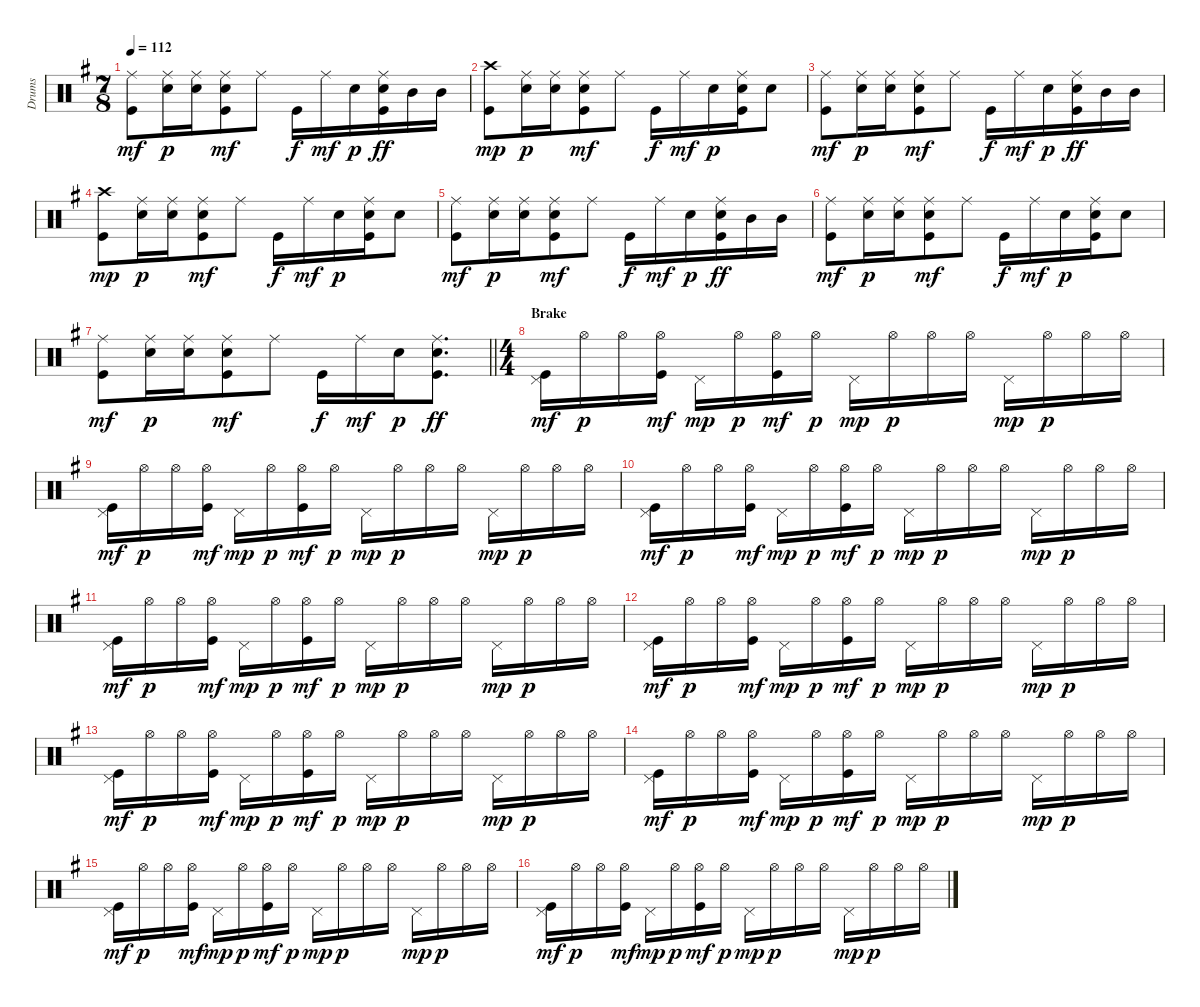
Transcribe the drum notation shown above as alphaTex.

\track ("Drums" "Drums") {instrument percussion}
\staff {score}
\articulation defaults
\ts (7 8)
\tempo 112
\clef neutral
\ks g
("Ride (middle)" "Kick (hit)").8{dy mf} ("Ride (middle)" "Snare (hit) 2").16{dy p} ("Ride (middle)" "Snare (hit) 2").16 ("Ride (middle)" "Snare (hit) 2" "Kick (hit)").8{dy mf} "Ride (middle)".8 "Kick (hit)".16{dy f} "Ride (middle)".16{dy mf} "Snare (hit) 2".16{dy p} ("Ride (middle)" "Snare (hit) 2" "Kick (hit)").16{dy ff} "Mid Tom (hit)".16 "Mid Tom (hit)".16 |
("Crash high (hit)" "Kick (hit)").8{dy mp} ("Ride (middle)" "Snare (hit) 2").16{dy p} ("Ride (middle)" "Snare (hit) 2").16 ("Ride (middle)" "Snare (hit) 2" "Kick (hit)").8{dy mf} "Ride (middle)".8 "Kick (hit)".16{dy f} "Ride (middle)".16{dy mf} "Snare (hit) 2".16{dy p} ("Ride (middle)" "Snare (hit) 2" "Kick (hit)").16 "Snare (hit) 2".8 |
("Ride (middle)" "Kick (hit)").8{dy mf} ("Ride (middle)" "Snare (hit) 2").16{dy p} ("Ride (middle)" "Snare (hit) 2").16 ("Ride (middle)" "Snare (hit) 2" "Kick (hit)").8{dy mf} "Ride (middle)".8 "Kick (hit)".16{dy f} "Ride (middle)".16{dy mf} "Snare (hit) 2".16{dy p} ("Ride (middle)" "Snare (hit) 2" "Kick (hit)").16{dy ff} "Mid Tom (hit)".16 "Mid Tom (hit)".16 |
("Crash high (hit)" "Kick (hit)").8{dy mp} ("Ride (middle)" "Snare (hit) 2").16{dy p} ("Ride (middle)" "Snare (hit) 2").16 ("Ride (middle)" "Snare (hit) 2" "Kick (hit)").8{dy mf} "Ride (middle)".8 "Kick (hit)".16{dy f} "Ride (middle)".16{dy mf} "Snare (hit) 2".16{dy p} ("Ride (middle)" "Snare (hit) 2" "Kick (hit)").16 "Snare (hit) 2".8 |
("Ride (middle)" "Kick (hit)").8{dy mf} ("Ride (middle)" "Snare (hit) 2").16{dy p} ("Ride (middle)" "Snare (hit) 2").16 ("Ride (middle)" "Snare (hit) 2" "Kick (hit)").8{dy mf} "Ride (middle)".8 "Kick (hit)".16{dy f} "Ride (middle)".16{dy mf} "Snare (hit) 2".16{dy p} ("Ride (middle)" "Snare (hit) 2" "Kick (hit)").16{dy ff} "Mid Tom (hit)".16 "Mid Tom (hit)".16 |
("Ride (middle)" "Kick (hit)").8{dy mf} ("Ride (middle)" "Snare (hit) 2").16{dy p} ("Ride (middle)" "Snare (hit) 2").16 ("Ride (middle)" "Snare (hit) 2" "Kick (hit)").8{dy mf} "Ride (middle)".8 "Kick (hit)".16{dy f} "Ride (middle)".16{dy mf} "Snare (hit) 2".16{dy p} ("Ride (middle)" "Snare (hit) 2" "Kick (hit)").16 "Snare (hit) 2".8 |
\barLineRight lightlight
("Ride (middle)" "Kick (hit)").8{dy mf} ("Ride (middle)" "Snare (hit) 2").16{dy p} ("Ride (middle)" "Snare (hit) 2").16 ("Ride (middle)" "Snare (hit) 2" "Kick (hit)").8{dy mf} "Ride (middle)".8 "Kick (hit)".16{dy f} "Ride (middle)".16{dy mf} "Snare (hit) 2".16{dy p} ("Ride (middle)" "Snare (hit) 2" "Kick (hit)").8{d dy ff} |
\ts (4 4)
\section ("" "Brake")
("Pedal Hi-Hat (hit)" "Kick (hit)").16{dy mf} "Hi-Hat (open)".16{dy p} "Hi-Hat (open)".16 ("Hi-Hat (open)" "Kick (hit)").16{dy mf} "Pedal Hi-Hat (hit)".16{dy mp} "Hi-Hat (open)".16{dy p} ("Hi-Hat (open)" "Kick (hit)").16{dy mf} "Hi-Hat (open)".16{dy p} "Pedal Hi-Hat (hit)".16{dy mp} "Hi-Hat (open)".16{dy p} "Hi-Hat (open)".16 "Hi-Hat (open)".16 "Pedal Hi-Hat (hit)".16{dy mp} "Hi-Hat (open)".16{dy p} "Hi-Hat (open)".16 "Hi-Hat (open)".16 |
("Pedal Hi-Hat (hit)" "Kick (hit)").16{dy mf} "Hi-Hat (open)".16{dy p} "Hi-Hat (open)".16 ("Hi-Hat (open)" "Kick (hit)").16{dy mf} "Pedal Hi-Hat (hit)".16{dy mp} "Hi-Hat (open)".16{dy p} ("Hi-Hat (open)" "Kick (hit)").16{dy mf} "Hi-Hat (open)".16{dy p} "Pedal Hi-Hat (hit)".16{dy mp} "Hi-Hat (open)".16{dy p} "Hi-Hat (open)".16 "Hi-Hat (open)".16 "Pedal Hi-Hat (hit)".16{dy mp} "Hi-Hat (open)".16{dy p} "Hi-Hat (open)".16 "Hi-Hat (open)".16 |
("Pedal Hi-Hat (hit)" "Kick (hit)").16{dy mf} "Hi-Hat (open)".16{dy p} "Hi-Hat (open)".16 ("Hi-Hat (open)" "Kick (hit)").16{dy mf} "Pedal Hi-Hat (hit)".16{dy mp} "Hi-Hat (open)".16{dy p} ("Hi-Hat (open)" "Kick (hit)").16{dy mf} "Hi-Hat (open)".16{dy p} "Pedal Hi-Hat (hit)".16{dy mp} "Hi-Hat (open)".16{dy p} "Hi-Hat (open)".16 "Hi-Hat (open)".16 "Pedal Hi-Hat (hit)".16{dy mp} "Hi-Hat (open)".16{dy p} "Hi-Hat (open)".16 "Hi-Hat (open)".16 |
("Pedal Hi-Hat (hit)" "Kick (hit)").16{dy mf} "Hi-Hat (open)".16{dy p} "Hi-Hat (open)".16 ("Hi-Hat (open)" "Kick (hit)").16{dy mf} "Pedal Hi-Hat (hit)".16{dy mp} "Hi-Hat (open)".16{dy p} ("Hi-Hat (open)" "Kick (hit)").16{dy mf} "Hi-Hat (open)".16{dy p} "Pedal Hi-Hat (hit)".16{dy mp} "Hi-Hat (open)".16{dy p} "Hi-Hat (open)".16 "Hi-Hat (open)".16 "Pedal Hi-Hat (hit)".16{dy mp} "Hi-Hat (open)".16{dy p} "Hi-Hat (open)".16 "Hi-Hat (open)".16 |
("Pedal Hi-Hat (hit)" "Kick (hit)").16{dy mf} "Hi-Hat (open)".16{dy p} "Hi-Hat (open)".16 ("Hi-Hat (open)" "Kick (hit)").16{dy mf} "Pedal Hi-Hat (hit)".16{dy mp} "Hi-Hat (open)".16{dy p} ("Hi-Hat (open)" "Kick (hit)").16{dy mf} "Hi-Hat (open)".16{dy p} "Pedal Hi-Hat (hit)".16{dy mp} "Hi-Hat (open)".16{dy p} "Hi-Hat (open)".16 "Hi-Hat (open)".16 "Pedal Hi-Hat (hit)".16{dy mp} "Hi-Hat (open)".16{dy p} "Hi-Hat (open)".16 "Hi-Hat (open)".16 |
("Pedal Hi-Hat (hit)" "Kick (hit)").16{dy mf} "Hi-Hat (open)".16{dy p} "Hi-Hat (open)".16 ("Hi-Hat (open)" "Kick (hit)").16{dy mf} "Pedal Hi-Hat (hit)".16{dy mp} "Hi-Hat (open)".16{dy p} ("Hi-Hat (open)" "Kick (hit)").16{dy mf} "Hi-Hat (open)".16{dy p} "Pedal Hi-Hat (hit)".16{dy mp} "Hi-Hat (open)".16{dy p} "Hi-Hat (open)".16 "Hi-Hat (open)".16 "Pedal Hi-Hat (hit)".16{dy mp} "Hi-Hat (open)".16{dy p} "Hi-Hat (open)".16 "Hi-Hat (open)".16 |
("Pedal Hi-Hat (hit)" "Kick (hit)").16{dy mf} "Hi-Hat (open)".16{dy p} "Hi-Hat (open)".16 ("Hi-Hat (open)" "Kick (hit)").16{dy mf} "Pedal Hi-Hat (hit)".16{dy mp} "Hi-Hat (open)".16{dy p} ("Hi-Hat (open)" "Kick (hit)").16{dy mf} "Hi-Hat (open)".16{dy p} "Pedal Hi-Hat (hit)".16{dy mp} "Hi-Hat (open)".16{dy p} "Hi-Hat (open)".16 "Hi-Hat (open)".16 "Pedal Hi-Hat (hit)".16{dy mp} "Hi-Hat (open)".16{dy p} "Hi-Hat (open)".16 "Hi-Hat (open)".16 |
("Pedal Hi-Hat (hit)" "Kick (hit)").16{dy mf} "Hi-Hat (open)".16{dy p} "Hi-Hat (open)".16 ("Hi-Hat (open)" "Kick (hit)").16{dy mf} "Pedal Hi-Hat (hit)".16{dy mp} "Hi-Hat (open)".16{dy p} ("Hi-Hat (open)" "Kick (hit)").16{dy mf} "Hi-Hat (open)".16{dy p} "Pedal Hi-Hat (hit)".16{dy mp} "Hi-Hat (open)".16{dy p} "Hi-Hat (open)".16 "Hi-Hat (open)".16 "Pedal Hi-Hat (hit)".16{dy mp} "Hi-Hat (open)".16{dy p} "Hi-Hat (open)".16 "Hi-Hat (open)".16 |
("Pedal Hi-Hat (hit)" "Kick (hit)").16{dy mf} "Hi-Hat (open)".16{dy p} "Hi-Hat (open)".16 ("Hi-Hat (open)" "Kick (hit)").16{dy mf} "Pedal Hi-Hat (hit)".16{dy mp} "Hi-Hat (open)".16{dy p} ("Hi-Hat (open)" "Kick (hit)").16{dy mf} "Hi-Hat (open)".16{dy p} "Pedal Hi-Hat (hit)".16{dy mp} "Hi-Hat (open)".16{dy p} "Hi-Hat (open)".16 "Hi-Hat (open)".16 "Pedal Hi-Hat (hit)".16{dy mp} "Hi-Hat (open)".16{dy p} "Hi-Hat (open)".16 "Hi-Hat (open)".16
